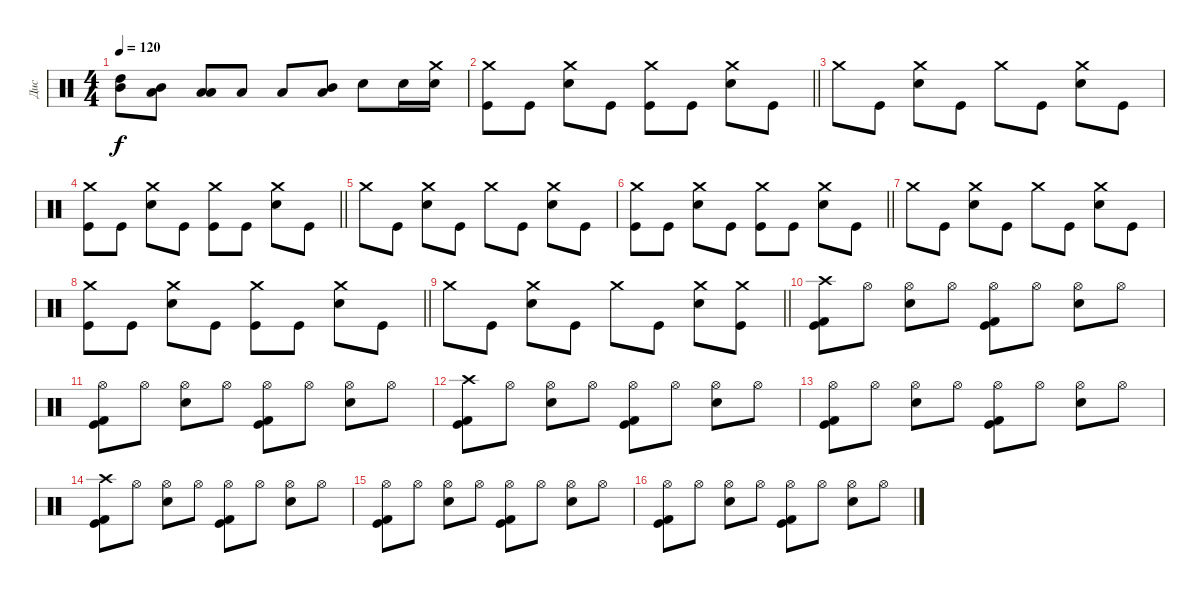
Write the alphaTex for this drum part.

\track ("Дис" "Дис") {instrument percussion}
\staff {score}
\articulation defaults
\ts (4 4)
\tempo 120
\clef neutral
\ks c
("High Tom (hit)" "Mid Tom (hit)").8{dy f} ("Mid Tom (hit)" "Low Tom (hit)").8 ("Low Tom (hit)" "Low Tom (hit)").8 "Low Tom (hit)".8 "Low Tom (hit)".8 ("Mid Tom (hit)" "Low Tom (hit)").8 "Electric Snare (hit)".8 "Electric Snare (hit)".16 ("Crash medium (hit)" "Electric Snare (hit)").16 |
\barLineRight lightlight
("Crash medium (hit)" "Kick (hit)").8 "Kick (hit)".8 ("Crash medium (hit)" "Electric Snare (hit)").8 "Kick (hit)".8 ("Crash medium (hit)" "Kick (hit)").8 "Kick (hit)".8 ("Crash medium (hit)" "Electric Snare (hit)").8 "Kick (hit)".8 |
"Crash medium (hit)".8 "Kick (hit)".8 ("Crash medium (hit)" "Electric Snare (hit)").8 "Kick (hit)".8 "Crash medium (hit)".8 "Kick (hit)".8 ("Crash medium (hit)" "Electric Snare (hit)").8 "Kick (hit)".8 |
\barLineRight lightlight
("Crash medium (hit)" "Kick (hit)").8 "Kick (hit)".8 ("Crash medium (hit)" "Electric Snare (hit)").8 "Kick (hit)".8 ("Crash medium (hit)" "Kick (hit)").8 "Kick (hit)".8 ("Crash medium (hit)" "Electric Snare (hit)").8 "Kick (hit)".8 |
"Crash medium (hit)".8 "Kick (hit)".8 ("Crash medium (hit)" "Electric Snare (hit)").8 "Kick (hit)".8 "Crash medium (hit)".8 "Kick (hit)".8 ("Crash medium (hit)" "Electric Snare (hit)").8 "Kick (hit)".8 |
\barLineRight lightlight
("Crash medium (hit)" "Kick (hit)").8 "Kick (hit)".8 ("Crash medium (hit)" "Electric Snare (hit)").8 "Kick (hit)".8 ("Crash medium (hit)" "Kick (hit)").8 "Kick (hit)".8 ("Crash medium (hit)" "Electric Snare (hit)").8 "Kick (hit)".8 |
"Crash medium (hit)".8 "Kick (hit)".8 ("Crash medium (hit)" "Electric Snare (hit)").8 "Kick (hit)".8 "Crash medium (hit)".8 "Kick (hit)".8 ("Crash medium (hit)" "Electric Snare (hit)").8 "Kick (hit)".8 |
\barLineRight lightlight
("Crash medium (hit)" "Kick (hit)").8 "Kick (hit)".8 ("Crash medium (hit)" "Electric Snare (hit)").8 "Kick (hit)".8 ("Crash medium (hit)" "Kick (hit)").8 "Kick (hit)".8 ("Crash medium (hit)" "Electric Snare (hit)").8 "Kick (hit)".8 |
\barLineRight lightlight "Crash medium (hit)".8 "Kick (hit)".8
("Crash medium (hit)" "Electric Snare (hit)").8 "Kick (hit)".8 "Crash medium (hit)".8 "Kick (hit)".8 ("Crash medium (hit)" "Electric Snare (hit)").8 ("Crash medium (hit)" "Kick (hit)").8 |
("Crash high (hit)" "Kick (hit) 2" "Kick (hit)").8 "Hi-Hat (open)".8 ("Hi-Hat (open)" "Snare (hit) 2").8 "Hi-Hat (open)".8 ("Hi-Hat (open)" "Kick (hit) 2" "Kick (hit)").8 "Hi-Hat (open)".8 ("Hi-Hat (open)" "Snare (hit) 2").8 "Hi-Hat (open)".8 |
("Hi-Hat (open)" "Kick (hit) 2" "Kick (hit)").8 "Hi-Hat (open)".8 ("Hi-Hat (open)" "Snare (hit) 2").8 "Hi-Hat (open)".8 ("Hi-Hat (open)" "Kick (hit) 2" "Kick (hit)").8 "Hi-Hat (open)".8 ("Hi-Hat (open)" "Snare (hit) 2").8 "Hi-Hat (open)".8 |
("Crash high (hit)" "Kick (hit) 2" "Kick (hit)").8 "Hi-Hat (open)".8 ("Hi-Hat (open)" "Snare (hit) 2").8 "Hi-Hat (open)".8 ("Hi-Hat (open)" "Kick (hit) 2" "Kick (hit)").8 "Hi-Hat (open)".8 ("Hi-Hat (open)" "Snare (hit) 2").8 "Hi-Hat (open)".8 |
("Hi-Hat (open)" "Kick (hit) 2" "Kick (hit)").8 "Hi-Hat (open)".8 ("Hi-Hat (open)" "Snare (hit) 2").8 "Hi-Hat (open)".8 ("Hi-Hat (open)" "Kick (hit) 2" "Kick (hit)").8 "Hi-Hat (open)".8 ("Hi-Hat (open)" "Snare (hit) 2").8 "Hi-Hat (open)".8 |
("Crash high (hit)" "Kick (hit) 2" "Kick (hit)").8 "Hi-Hat (open)".8 ("Hi-Hat (open)" "Snare (hit) 2").8 "Hi-Hat (open)".8 ("Hi-Hat (open)" "Kick (hit) 2" "Kick (hit)").8 "Hi-Hat (open)".8 ("Hi-Hat (open)" "Snare (hit) 2").8 "Hi-Hat (open)".8 |
("Hi-Hat (open)" "Kick (hit) 2" "Kick (hit)").8 "Hi-Hat (open)".8 ("Hi-Hat (open)" "Snare (hit) 2").8 "Hi-Hat (open)".8 ("Hi-Hat (open)" "Kick (hit) 2" "Kick (hit)").8 "Hi-Hat (open)".8 ("Hi-Hat (open)" "Snare (hit) 2").8 "Hi-Hat (open)".8 |
("Hi-Hat (open)" "Kick (hit) 2" "Kick (hit)").8 "Hi-Hat (open)".8 ("Hi-Hat (open)" "Snare (hit) 2").8 "Hi-Hat (open)".8 ("Hi-Hat (open)" "Kick (hit) 2" "Kick (hit)").8 "Hi-Hat (open)".8 ("Hi-Hat (open)" "Snare (hit) 2").8 "Hi-Hat (open)".8
